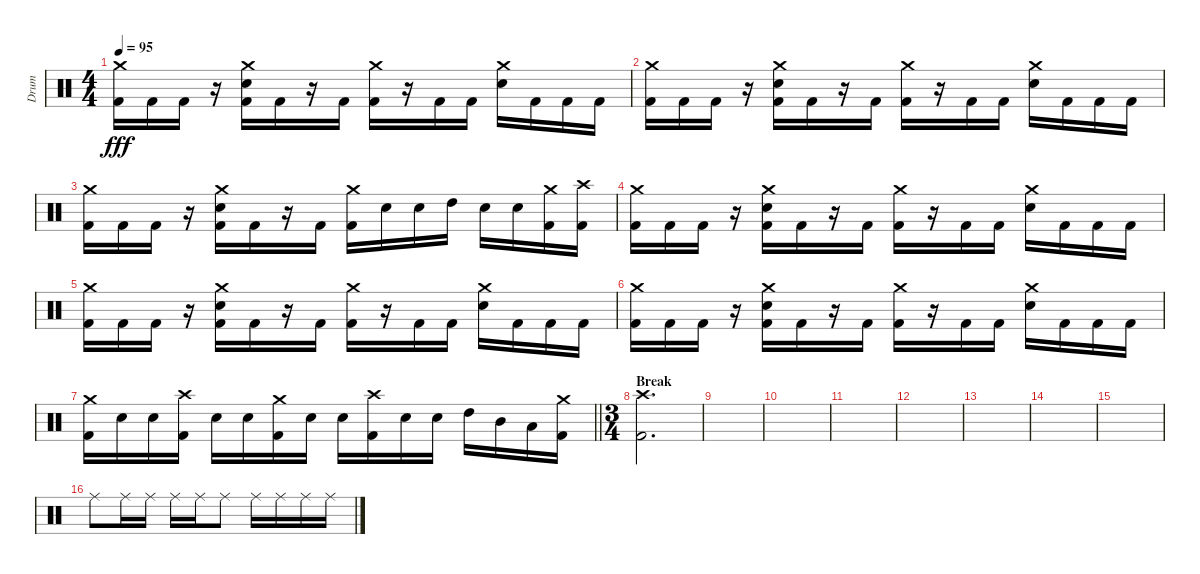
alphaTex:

\track ("Drum" "Drum") {instrument percussion}
\staff {score}
\articulation defaults
\ts (4 4)
\tempo 95
\clef neutral
\ks c
("Crash medium (hit)" "Kick (hit) 2").16{dy fff} "Kick (hit) 2".16 "Kick (hit) 2".16 r.16 ("Crash medium (hit)" "Electric Snare (hit)" "Kick (hit) 2").16 "Kick (hit) 2".16 r.16 "Kick (hit) 2".16 ("Crash medium (hit)" "Kick (hit) 2").16 r.16 "Kick (hit) 2".16 "Kick (hit) 2".16 ("Crash medium (hit)" "Electric Snare (hit)").16 "Kick (hit) 2".16 "Kick (hit) 2".16 "Kick (hit) 2".16 |
("Crash medium (hit)" "Kick (hit) 2").16 "Kick (hit) 2".16 "Kick (hit) 2".16 r.16 ("Crash medium (hit)" "Electric Snare (hit)" "Kick (hit) 2").16 "Kick (hit) 2".16 r.16 "Kick (hit) 2".16 ("Crash medium (hit)" "Kick (hit) 2").16 r.16 "Kick (hit) 2".16 "Kick (hit) 2".16 ("Crash medium (hit)" "Electric Snare (hit)").16 "Kick (hit) 2".16 "Kick (hit) 2".16 "Kick (hit) 2".16 |
("Crash medium (hit)" "Kick (hit) 2").16 "Kick (hit) 2".16 "Kick (hit) 2".16 r.16 ("Crash medium (hit)" "Electric Snare (hit)" "Kick (hit) 2").16 "Kick (hit) 2".16 r.16 "Kick (hit) 2".16 ("Crash medium (hit)" "Kick (hit) 2").16 "Electric Snare (hit)".16 "Electric Snare (hit)".16 "High Tom (hit)".16 "Electric Snare (hit)".16 "Electric Snare (hit)".16 ("Crash medium (hit)" "Kick (hit) 2").16 ("Crash high (hit)" "Kick (hit) 2").16 |
("Crash medium (hit)" "Kick (hit) 2").16 "Kick (hit) 2".16 "Kick (hit) 2".16 r.16 ("Crash medium (hit)" "Electric Snare (hit)" "Kick (hit) 2").16 "Kick (hit) 2".16 r.16 "Kick (hit) 2".16 ("Crash medium (hit)" "Kick (hit) 2").16 r.16 "Kick (hit) 2".16 "Kick (hit) 2".16 ("Crash medium (hit)" "Electric Snare (hit)").16 "Kick (hit) 2".16 "Kick (hit) 2".16 "Kick (hit) 2".16 |
("Crash medium (hit)" "Kick (hit) 2").16 "Kick (hit) 2".16 "Kick (hit) 2".16 r.16 ("Crash medium (hit)" "Electric Snare (hit)" "Kick (hit) 2").16 "Kick (hit) 2".16 r.16 "Kick (hit) 2".16 ("Crash medium (hit)" "Kick (hit) 2").16 r.16 "Kick (hit) 2".16 "Kick (hit) 2".16 ("Crash medium (hit)" "Electric Snare (hit)").16 "Kick (hit) 2".16 "Kick (hit) 2".16 "Kick (hit) 2".16 |
("Crash medium (hit)" "Kick (hit) 2").16 "Kick (hit) 2".16 "Kick (hit) 2".16 r.16 ("Crash medium (hit)" "Electric Snare (hit)" "Kick (hit) 2").16 "Kick (hit) 2".16 r.16 "Kick (hit) 2".16 ("Crash medium (hit)" "Kick (hit) 2").16 r.16 "Kick (hit) 2".16 "Kick (hit) 2".16 ("Crash medium (hit)" "Electric Snare (hit)").16 "Kick (hit) 2".16 "Kick (hit) 2".16 "Kick (hit) 2".16 |
\barLineRight lightlight
("Crash medium (hit)" "Kick (hit) 2").16 "Electric Snare (hit)".16 "Electric Snare (hit)".16 ("Crash high (hit)" "Kick (hit) 2").16 "Electric Snare (hit)".16 "Electric Snare (hit)".16 ("Crash medium (hit)" "Kick (hit) 2").16 "Electric Snare (hit)".16 "Electric Snare (hit)".16 ("Crash high (hit)" "Kick (hit) 2").16 "Electric Snare (hit)".16 "Electric Snare (hit)".16 "High Tom (hit)".16 "Mid Tom (hit)".16 "Low Tom (hit)".16 ("Crash medium (hit)" "Kick (hit) 2").16 |
\ts (3 4)
\section ("" "Break")
("Crash high (hit)" "Kick (hit) 2").2{d} |
|
|
|
|
|
|
|
"Ride (middle)".8 "Ride (middle)".16 "Ride (middle)".16 "Ride (middle)".16 "Ride (middle)".16 "Ride (middle)".8 "Ride (middle)".16 "Ride (middle)".16 "Ride (middle)".16 "Ride (middle)".16
